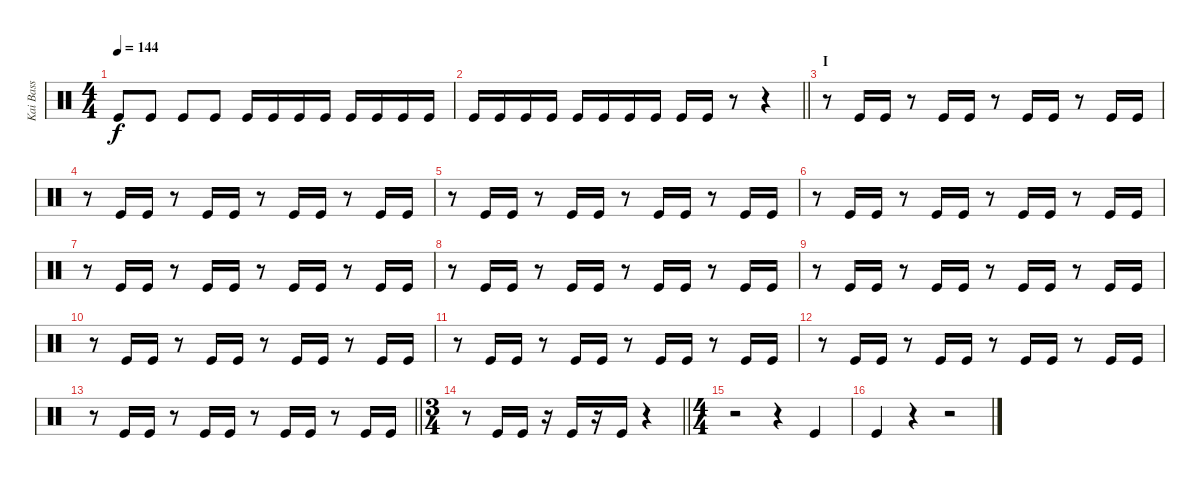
\track ("Kai Bass" "Kai Bass") {instrument percussion}
\staff {score}
\articulation defaults
\ts (4 4)
\tempo 144
\clef neutral
\ks c "Kick (hit)".8{dy f} "Kick (hit)".8 "Kick (hit)".8 "Kick (hit)".8 "Kick (hit)".16 "Kick (hit)".16 "Kick (hit)".16 "Kick (hit)".16 "Kick (hit)".16 "Kick (hit)".16 "Kick (hit)".16 "Kick (hit)".16
|
\barLineRight lightlight "Kick (hit)".16 "Kick (hit)".16 "Kick (hit)".16 "Kick (hit)".16 "Kick (hit)".16 "Kick (hit)".16 "Kick (hit)".16 "Kick (hit)".16 "Kick (hit)".16 "Kick (hit)".16
r.8 r.4 |
\section ("" "I")
r.8 "Kick (hit)".16 "Kick (hit)".16 r.8 "Kick (hit)".16 "Kick (hit)".16 r.8 "Kick (hit)".16 "Kick (hit)".16 r.8 "Kick (hit)".16 "Kick (hit)".16 |
r.8 "Kick (hit)".16 "Kick (hit)".16 r.8 "Kick (hit)".16 "Kick (hit)".16 r.8 "Kick (hit)".16 "Kick (hit)".16 r.8 "Kick (hit)".16 "Kick (hit)".16 |
r.8 "Kick (hit)".16 "Kick (hit)".16 r.8 "Kick (hit)".16 "Kick (hit)".16 r.8 "Kick (hit)".16 "Kick (hit)".16 r.8 "Kick (hit)".16 "Kick (hit)".16 |
r.8 "Kick (hit)".16 "Kick (hit)".16 r.8 "Kick (hit)".16 "Kick (hit)".16 r.8 "Kick (hit)".16 "Kick (hit)".16 r.8 "Kick (hit)".16 "Kick (hit)".16 |
r.8 "Kick (hit)".16 "Kick (hit)".16 r.8 "Kick (hit)".16 "Kick (hit)".16 r.8 "Kick (hit)".16 "Kick (hit)".16 r.8 "Kick (hit)".16 "Kick (hit)".16 |
r.8 "Kick (hit)".16 "Kick (hit)".16 r.8 "Kick (hit)".16 "Kick (hit)".16 r.8 "Kick (hit)".16 "Kick (hit)".16 r.8 "Kick (hit)".16 "Kick (hit)".16 |
r.8 "Kick (hit)".16 "Kick (hit)".16 r.8 "Kick (hit)".16 "Kick (hit)".16 r.8 "Kick (hit)".16 "Kick (hit)".16 r.8 "Kick (hit)".16 "Kick (hit)".16 |
r.8 "Kick (hit)".16 "Kick (hit)".16 r.8 "Kick (hit)".16 "Kick (hit)".16 r.8 "Kick (hit)".16 "Kick (hit)".16 r.8 "Kick (hit)".16 "Kick (hit)".16 |
r.8 "Kick (hit)".16 "Kick (hit)".16 r.8 "Kick (hit)".16 "Kick (hit)".16 r.8 "Kick (hit)".16 "Kick (hit)".16 r.8 "Kick (hit)".16 "Kick (hit)".16 |
r.8 "Kick (hit)".16 "Kick (hit)".16 r.8 "Kick (hit)".16 "Kick (hit)".16 r.8 "Kick (hit)".16 "Kick (hit)".16 r.8 "Kick (hit)".16 "Kick (hit)".16 |
\barLineRight lightlight
r.8 "Kick (hit)".16 "Kick (hit)".16 r.8 "Kick (hit)".16 "Kick (hit)".16 r.8 "Kick (hit)".16 "Kick (hit)".16 r.8 "Kick (hit)".16 "Kick (hit)".16 |
\ts (3 4)
\barLineRight lightlight
r.8 "Kick (hit)".16 "Kick (hit)".16 r.16 "Kick (hit)".16 r.16 "Kick (hit)".16 r.4 |
\ts (4 4)
r.2 r.4 "Kick (hit)".4 |
"Kick (hit)".4 r.4 r.2
